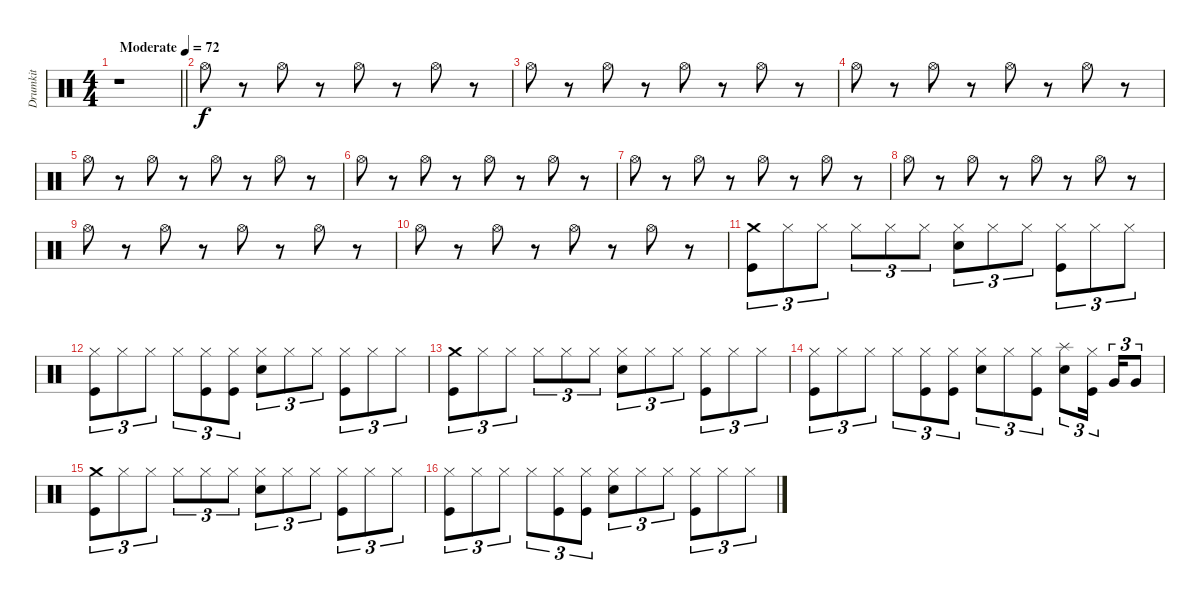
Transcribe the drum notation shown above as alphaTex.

\track ("Drumkit" "Drumkit") {instrument percussion}
\staff {score}
\articulation defaults
\ts (4 4)
\tempo (72 "Moderate")
\clef neutral
\barLineRight lightlight
\ks c
r.1{dy f} |
"Hi-Hat (open)".8 r.8 "Hi-Hat (open)".8 r.8 "Hi-Hat (open)".8 r.8 "Hi-Hat (open)".8 r.8 |
"Hi-Hat (open)".8 r.8 "Hi-Hat (open)".8 r.8 "Hi-Hat (open)".8 r.8 "Hi-Hat (open)".8 r.8 |
"Hi-Hat (open)".8 r.8 "Hi-Hat (open)".8 r.8 "Hi-Hat (open)".8 r.8 "Hi-Hat (open)".8 r.8 |
"Hi-Hat (open)".8 r.8 "Hi-Hat (open)".8 r.8 "Hi-Hat (open)".8 r.8 "Hi-Hat (open)".8 r.8 |
"Hi-Hat (open)".8 r.8 "Hi-Hat (open)".8 r.8 "Hi-Hat (open)".8 r.8 "Hi-Hat (open)".8 r.8 |
"Hi-Hat (open)".8 r.8 "Hi-Hat (open)".8 r.8 "Hi-Hat (open)".8 r.8 "Hi-Hat (open)".8 r.8 |
"Hi-Hat (open)".8 r.8 "Hi-Hat (open)".8 r.8 "Hi-Hat (open)".8 r.8 "Hi-Hat (open)".8 r.8 |
"Hi-Hat (open)".8 r.8 "Hi-Hat (open)".8 r.8 "Hi-Hat (open)".8 r.8 "Hi-Hat (open)".8 r.8 |
"Hi-Hat (open)".8 r.8 "Hi-Hat (open)".8 r.8 "Hi-Hat (open)".8 r.8 "Hi-Hat (open)".8 r.8 |
("Kick (hit)" "Crash medium (hit)").8{tu (3 2)} "Hi-Hat (closed)".8{tu (3 2)} "Hi-Hat (closed)".8{tu (3 2)} "Hi-Hat (closed)".8{tu (3 2)} "Hi-Hat (closed)".8{tu (3 2)} "Hi-Hat (closed)".8{tu (3 2)} ("Snare (hit) 2" "Hi-Hat (closed)").8{tu (3 2)} "Hi-Hat (closed)".8{tu (3 2)} "Hi-Hat (closed)".8{tu (3 2)} ("Kick (hit)" "Hi-Hat (closed)").8{tu (3 2)} "Hi-Hat (closed)".8{tu (3 2)} "Hi-Hat (closed)".8{tu (3 2)} |
("Kick (hit)" "Hi-Hat (closed)").8{tu (3 2)} "Hi-Hat (closed)".8{tu (3 2)} "Hi-Hat (closed)".8{tu (3 2)} "Hi-Hat (closed)".8{tu (3 2)} ("Kick (hit)" "Hi-Hat (closed)").8{tu (3 2)} ("Kick (hit)" "Hi-Hat (closed)").8{tu (3 2)} ("Snare (hit) 2" "Hi-Hat (closed)").8{tu (3 2)} "Hi-Hat (closed)".8{tu (3 2)} "Hi-Hat (closed)".8{tu (3 2)} ("Kick (hit)" "Hi-Hat (closed)").8{tu (3 2)} "Hi-Hat (closed)".8{tu (3 2)} "Hi-Hat (closed)".8{tu (3 2)} |
("Kick (hit)" "Crash medium (hit)").8{tu (3 2)} "Hi-Hat (closed)".8{tu (3 2)} "Hi-Hat (closed)".8{tu (3 2)} "Hi-Hat (closed)".8{tu (3 2)} "Hi-Hat (closed)".8{tu (3 2)} "Hi-Hat (closed)".8{tu (3 2)} ("Snare (hit) 2" "Hi-Hat (closed)").8{tu (3 2)} "Hi-Hat (closed)".8{tu (3 2)} "Hi-Hat (closed)".8{tu (3 2)} ("Kick (hit)" "Hi-Hat (closed)").8{tu (3 2)} "Hi-Hat (closed)".8{tu (3 2)} "Hi-Hat (closed)".8{tu (3 2)} |
("Kick (hit)" "Hi-Hat (closed)").8{tu (3 2)} "Hi-Hat (closed)".8{tu (3 2)} "Hi-Hat (closed)".8{tu (3 2)} "Hi-Hat (closed)".8{tu (3 2)} ("Kick (hit)" "Hi-Hat (closed)").8{tu (3 2)} ("Kick (hit)" "Hi-Hat (closed)").8{tu (3 2)} ("Snare (hit) 2" "Hi-Hat (closed)").8{tu (3 2)} "Hi-Hat (closed)".8{tu (3 2)} ("Kick (hit)" "Hi-Hat (closed)").8{tu (3 2)} ("Snare (hit) 2" "Splash (hit)").8{tu (3 2)} ("Kick (hit)" "Hi-Hat (closed)").16{tu (3 2) beam splitsecondary} "Very Low Tom (hit)".16{tu (3 2)} "Very Low Tom (hit)".8{tu (3 2)} |
("Kick (hit)" "Crash medium (hit)").8{tu (3 2)} "Hi-Hat (closed)".8{tu (3 2)} "Hi-Hat (closed)".8{tu (3 2)} "Hi-Hat (closed)".8{tu (3 2)} "Hi-Hat (closed)".8{tu (3 2)} "Hi-Hat (closed)".8{tu (3 2)} ("Snare (hit) 2" "Hi-Hat (closed)").8{tu (3 2)} "Hi-Hat (closed)".8{tu (3 2)} "Hi-Hat (closed)".8{tu (3 2)} ("Kick (hit)" "Hi-Hat (closed)").8{tu (3 2)} "Hi-Hat (closed)".8{tu (3 2)} "Hi-Hat (closed)".8{tu (3 2)} |
("Kick (hit)" "Hi-Hat (closed)").8{tu (3 2)} "Hi-Hat (closed)".8{tu (3 2)} "Hi-Hat (closed)".8{tu (3 2)} "Hi-Hat (closed)".8{tu (3 2)} ("Kick (hit)" "Hi-Hat (closed)").8{tu (3 2)} ("Kick (hit)" "Hi-Hat (closed)").8{tu (3 2)} ("Snare (hit) 2" "Hi-Hat (closed)").8{tu (3 2)} "Hi-Hat (closed)".8{tu (3 2)} "Hi-Hat (closed)".8{tu (3 2)} ("Kick (hit)" "Hi-Hat (closed)").8{tu (3 2)} "Hi-Hat (closed)".8{tu (3 2)} "Hi-Hat (closed)".8{tu (3 2)}
